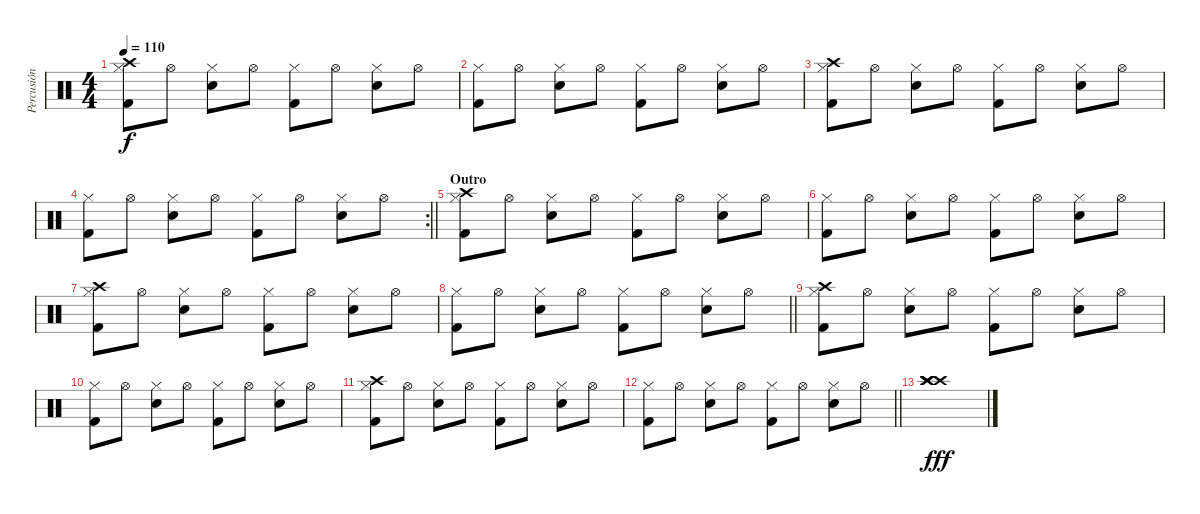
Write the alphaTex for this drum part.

\track ("Percusión" "Percusión") {instrument percussion}
\staff {score}
\articulation defaults
\ts (4 4)
\tempo 110
\clef neutral
\ks c
("Crash high (hit)" "Kick (hit) 2" "Hi-Hat (closed)").8{dy f} "Hi-Hat (open)".8 ("Snare (hit) 2" "Hi-Hat (closed)").8 "Hi-Hat (open)".8 ("Kick (hit) 2" "Hi-Hat (closed)").8 "Hi-Hat (open)".8 ("Snare (hit) 2" "Hi-Hat (closed)").8 "Hi-Hat (open)".8 |
("Kick (hit) 2" "Hi-Hat (closed)").8 "Hi-Hat (open)".8 ("Snare (hit) 2" "Hi-Hat (closed)").8 "Hi-Hat (open)".8 ("Kick (hit) 2" "Hi-Hat (closed)").8 "Hi-Hat (open)".8 ("Snare (hit) 2" "Hi-Hat (closed)").8 "Hi-Hat (open)".8 |
("Crash high (hit)" "Kick (hit) 2" "Hi-Hat (closed)").8 "Hi-Hat (open)".8 ("Snare (hit) 2" "Hi-Hat (closed)").8 "Hi-Hat (open)".8 ("Kick (hit) 2" "Hi-Hat (closed)").8 "Hi-Hat (open)".8 ("Snare (hit) 2" "Hi-Hat (closed)").8 "Hi-Hat (open)".8 |
\rc 2
\barLineRight lightlight
("Kick (hit) 2" "Hi-Hat (closed)").8 "Hi-Hat (open)".8 ("Snare (hit) 2" "Hi-Hat (closed)").8 "Hi-Hat (open)".8 ("Kick (hit) 2" "Hi-Hat (closed)").8 "Hi-Hat (open)".8 ("Snare (hit) 2" "Hi-Hat (closed)").8 "Hi-Hat (open)".8 |
\section ("" "Outro")
("Crash high (hit)" "Kick (hit) 2" "Hi-Hat (closed)").8 "Hi-Hat (open)".8 ("Snare (hit) 2" "Hi-Hat (closed)").8 "Hi-Hat (open)".8 ("Kick (hit) 2" "Hi-Hat (closed)").8 "Hi-Hat (open)".8 ("Snare (hit) 2" "Hi-Hat (closed)").8 "Hi-Hat (open)".8 |
("Kick (hit) 2" "Hi-Hat (closed)").8 "Hi-Hat (open)".8 ("Snare (hit) 2" "Hi-Hat (closed)").8 "Hi-Hat (open)".8 ("Kick (hit) 2" "Hi-Hat (closed)").8 "Hi-Hat (open)".8 ("Snare (hit) 2" "Hi-Hat (closed)").8 "Hi-Hat (open)".8 |
("Crash high (hit)" "Kick (hit) 2" "Hi-Hat (closed)").8 "Hi-Hat (open)".8 ("Snare (hit) 2" "Hi-Hat (closed)").8 "Hi-Hat (open)".8 ("Kick (hit) 2" "Hi-Hat (closed)").8 "Hi-Hat (open)".8 ("Snare (hit) 2" "Hi-Hat (closed)").8 "Hi-Hat (open)".8 |
\barLineRight lightlight
("Kick (hit) 2" "Hi-Hat (closed)").8 "Hi-Hat (open)".8 ("Snare (hit) 2" "Hi-Hat (closed)").8 "Hi-Hat (open)".8 ("Kick (hit) 2" "Hi-Hat (closed)").8 "Hi-Hat (open)".8 ("Snare (hit) 2" "Hi-Hat (closed)").8 "Hi-Hat (open)".8 |
("Crash high (hit)" "Kick (hit) 2" "Hi-Hat (closed)").8 "Hi-Hat (open)".8 ("Snare (hit) 2" "Hi-Hat (closed)").8 "Hi-Hat (open)".8 ("Kick (hit) 2" "Hi-Hat (closed)").8 "Hi-Hat (open)".8 ("Snare (hit) 2" "Hi-Hat (closed)").8 "Hi-Hat (open)".8 |
("Kick (hit) 2" "Hi-Hat (closed)").8 "Hi-Hat (open)".8 ("Snare (hit) 2" "Hi-Hat (closed)").8 "Hi-Hat (open)".8 ("Kick (hit) 2" "Hi-Hat (closed)").8 "Hi-Hat (open)".8 ("Snare (hit) 2" "Hi-Hat (closed)").8 "Hi-Hat (open)".8 |
("Crash high (hit)" "Kick (hit) 2" "Hi-Hat (closed)").8 "Hi-Hat (open)".8 ("Snare (hit) 2" "Hi-Hat (closed)").8 "Hi-Hat (open)".8 ("Kick (hit) 2" "Hi-Hat (closed)").8 "Hi-Hat (open)".8 ("Snare (hit) 2" "Hi-Hat (closed)").8 "Hi-Hat (open)".8 |
\barLineRight lightlight
("Kick (hit) 2" "Hi-Hat (closed)").8 "Hi-Hat (open)".8 ("Snare (hit) 2" "Hi-Hat (closed)").8 "Hi-Hat (open)".8 ("Kick (hit) 2" "Hi-Hat (closed)").8 "Hi-Hat (open)".8 ("Snare (hit) 2" "Hi-Hat (closed)").8 "Hi-Hat (open)".8 |
("Crash high (hit)" "Crash high (hit)" "Crash high (hit)" "Crash high (hit)").1{dy fff}
